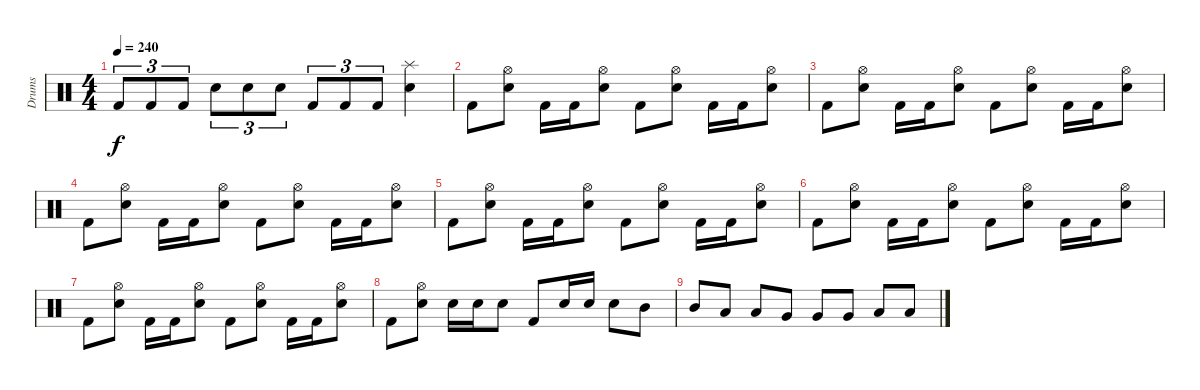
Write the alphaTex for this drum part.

\track ("Drums" "Drums") {instrument percussion}
\staff {score}
\articulation defaults
\ts (4 4)
\tempo 240
\clef neutral
\ks c "Kick (hit) 2".8{tu (3 2) dy f} "Kick (hit) 2".8{tu (3 2)} "Kick (hit) 2".8{tu (3 2)} "Electric Snare (hit)".8{tu (3 2)} "Electric Snare (hit)".8{tu (3 2)} "Electric Snare (hit)".8{tu (3 2)} "Kick (hit) 2".8{tu (3 2)} "Kick (hit) 2".8{tu (3 2)} "Kick (hit) 2".8{tu (3 2)}
("Splash (hit)" "Electric Snare (hit)").4 |
"Kick (hit) 2".8 ("Hi-Hat (open)" "Electric Snare (hit)").8 "Kick (hit) 2".16 "Kick (hit) 2".16 ("Hi-Hat (open)" "Electric Snare (hit)").8 "Kick (hit) 2".8 ("Hi-Hat (open)" "Electric Snare (hit)").8 "Kick (hit) 2".16 "Kick (hit) 2".16 ("Hi-Hat (open)" "Electric Snare (hit)").8 |
"Kick (hit) 2".8 ("Hi-Hat (open)" "Electric Snare (hit)").8 "Kick (hit) 2".16 "Kick (hit) 2".16 ("Hi-Hat (open)" "Electric Snare (hit)").8 "Kick (hit) 2".8 ("Hi-Hat (open)" "Electric Snare (hit)").8 "Kick (hit) 2".16 "Kick (hit) 2".16 ("Hi-Hat (open)" "Electric Snare (hit)").8 |
"Kick (hit) 2".8 ("Hi-Hat (open)" "Electric Snare (hit)").8 "Kick (hit) 2".16 "Kick (hit) 2".16 ("Hi-Hat (open)" "Electric Snare (hit)").8 "Kick (hit) 2".8 ("Hi-Hat (open)" "Electric Snare (hit)").8 "Kick (hit) 2".16 "Kick (hit) 2".16 ("Hi-Hat (open)" "Electric Snare (hit)").8 |
"Kick (hit) 2".8 ("Hi-Hat (open)" "Electric Snare (hit)").8 "Kick (hit) 2".16 "Kick (hit) 2".16 ("Hi-Hat (open)" "Electric Snare (hit)").8 "Kick (hit) 2".8 ("Hi-Hat (open)" "Electric Snare (hit)").8 "Kick (hit) 2".16 "Kick (hit) 2".16 ("Hi-Hat (open)" "Electric Snare (hit)").8 |
"Kick (hit) 2".8 ("Hi-Hat (open)" "Electric Snare (hit)").8 "Kick (hit) 2".16 "Kick (hit) 2".16 ("Hi-Hat (open)" "Electric Snare (hit)").8 "Kick (hit) 2".8 ("Hi-Hat (open)" "Electric Snare (hit)").8 "Kick (hit) 2".16 "Kick (hit) 2".16 ("Hi-Hat (open)" "Electric Snare (hit)").8 |
"Kick (hit) 2".8 ("Hi-Hat (open)" "Electric Snare (hit)").8 "Kick (hit) 2".16 "Kick (hit) 2".16 ("Hi-Hat (open)" "Electric Snare (hit)").8 "Kick (hit) 2".8 ("Hi-Hat (open)" "Electric Snare (hit)").8 "Kick (hit) 2".16 "Kick (hit) 2".16 ("Hi-Hat (open)" "Electric Snare (hit)").8 |
"Kick (hit) 2".8 ("Hi-Hat (open)" "Electric Snare (hit)").8 "Electric Snare (hit)".16 "Electric Snare (hit)".16 "Electric Snare (hit)".8 "Kick (hit) 2".8 "Electric Snare (hit)".16 "Electric Snare (hit)".16 "Electric Snare (hit)".8 "Mid Tom (hit)".8 |
"Mid Tom (hit)".8 "Low Tom (hit)".8 "Low Tom (hit)".8 "Very Low Tom (hit)".8 "Very Low Tom (hit)".8 "Very Low Tom (hit)".8 "Low Floor Tom (hit)".8 "Low Floor Tom (hit)".8
